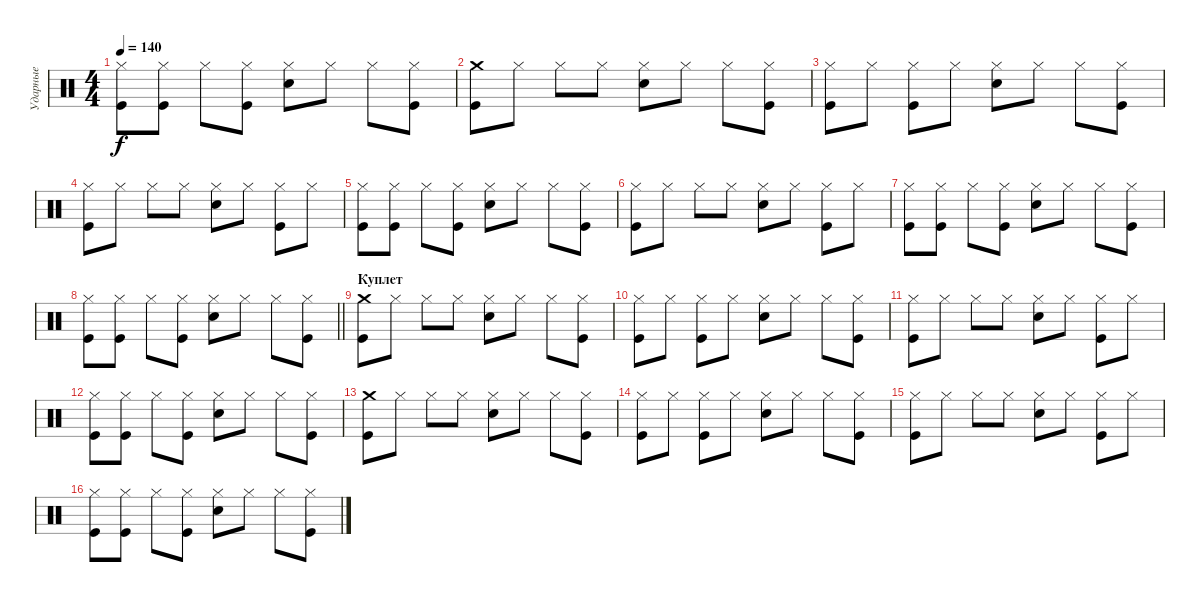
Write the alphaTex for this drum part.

\track ("Ударные" "Ударные") {instrument percussion}
\staff {score}
\articulation defaults
\ts (4 4)
\tempo 140
\clef neutral
\ks c
("Hi-Hat (closed)" "Kick (hit)").8{dy f} ("Hi-Hat (closed)" "Kick (hit)").8 "Hi-Hat (closed)".8 ("Hi-Hat (closed)" "Kick (hit)").8 ("Hi-Hat (closed)" "Snare (hit) 2").8 "Hi-Hat (closed)".8 "Hi-Hat (closed)".8 ("Hi-Hat (closed)" "Kick (hit)").8 |
("Crash medium (hit)" "Kick (hit)").8 "Hi-Hat (closed)".8 "Hi-Hat (closed)".8 "Hi-Hat (closed)".8 ("Hi-Hat (closed)" "Snare (hit) 2").8 "Hi-Hat (closed)".8 "Hi-Hat (closed)".8 ("Hi-Hat (closed)" "Kick (hit)").8 |
("Hi-Hat (closed)" "Kick (hit)").8 "Hi-Hat (closed)".8 ("Hi-Hat (closed)" "Kick (hit)").8 "Hi-Hat (closed)".8 ("Hi-Hat (closed)" "Snare (hit) 2").8 "Hi-Hat (closed)".8 "Hi-Hat (closed)".8 ("Hi-Hat (closed)" "Kick (hit)").8 |
("Hi-Hat (closed)" "Kick (hit)").8 "Hi-Hat (closed)".8 "Hi-Hat (closed)".8 "Hi-Hat (closed)".8 ("Hi-Hat (closed)" "Snare (hit) 2").8 "Hi-Hat (closed)".8 ("Hi-Hat (closed)" "Kick (hit)").8 "Hi-Hat (closed)".8 |
("Hi-Hat (closed)" "Kick (hit)").8 ("Hi-Hat (closed)" "Kick (hit)").8 "Hi-Hat (closed)".8 ("Hi-Hat (closed)" "Kick (hit)").8 ("Hi-Hat (closed)" "Snare (hit) 2").8 "Hi-Hat (closed)".8 "Hi-Hat (closed)".8 ("Hi-Hat (closed)" "Kick (hit)").8 |
("Hi-Hat (closed)" "Kick (hit)").8 "Hi-Hat (closed)".8 "Hi-Hat (closed)".8 "Hi-Hat (closed)".8 ("Hi-Hat (closed)" "Snare (hit) 2").8 "Hi-Hat (closed)".8 ("Hi-Hat (closed)" "Kick (hit)").8 "Hi-Hat (closed)".8 |
("Hi-Hat (closed)" "Kick (hit)").8 ("Hi-Hat (closed)" "Kick (hit)").8 "Hi-Hat (closed)".8 ("Hi-Hat (closed)" "Kick (hit)").8 ("Hi-Hat (closed)" "Snare (hit) 2").8 "Hi-Hat (closed)".8 "Hi-Hat (closed)".8 ("Hi-Hat (closed)" "Kick (hit)").8 |
\barLineRight lightlight
("Hi-Hat (closed)" "Kick (hit)").8 ("Hi-Hat (closed)" "Kick (hit)").8 "Hi-Hat (closed)".8 ("Hi-Hat (closed)" "Kick (hit)").8 ("Hi-Hat (closed)" "Snare (hit) 2").8 "Hi-Hat (closed)".8 "Hi-Hat (closed)".8 ("Hi-Hat (closed)" "Kick (hit)").8 |
\section ("" "Куплет")
("Crash medium (hit)" "Kick (hit)").8 "Hi-Hat (closed)".8 "Hi-Hat (closed)".8 "Hi-Hat (closed)".8 ("Hi-Hat (closed)" "Snare (hit) 2").8 "Hi-Hat (closed)".8 "Hi-Hat (closed)".8 ("Hi-Hat (closed)" "Kick (hit)").8 |
("Hi-Hat (closed)" "Kick (hit)").8 "Hi-Hat (closed)".8 ("Hi-Hat (closed)" "Kick (hit)").8 "Hi-Hat (closed)".8 ("Hi-Hat (closed)" "Snare (hit) 2").8 "Hi-Hat (closed)".8 "Hi-Hat (closed)".8 ("Hi-Hat (closed)" "Kick (hit)").8 |
("Hi-Hat (closed)" "Kick (hit)").8 "Hi-Hat (closed)".8 "Hi-Hat (closed)".8 "Hi-Hat (closed)".8 ("Hi-Hat (closed)" "Snare (hit) 2").8 "Hi-Hat (closed)".8 ("Hi-Hat (closed)" "Kick (hit)").8 "Hi-Hat (closed)".8 |
("Hi-Hat (closed)" "Kick (hit)").8 ("Hi-Hat (closed)" "Kick (hit)").8 "Hi-Hat (closed)".8 ("Hi-Hat (closed)" "Kick (hit)").8 ("Hi-Hat (closed)" "Snare (hit) 2").8 "Hi-Hat (closed)".8 "Hi-Hat (closed)".8 ("Hi-Hat (closed)" "Kick (hit)").8 |
("Crash medium (hit)" "Kick (hit)").8 "Hi-Hat (closed)".8 "Hi-Hat (closed)".8 "Hi-Hat (closed)".8 ("Hi-Hat (closed)" "Snare (hit) 2").8 "Hi-Hat (closed)".8 "Hi-Hat (closed)".8 ("Hi-Hat (closed)" "Kick (hit)").8 |
("Hi-Hat (closed)" "Kick (hit)").8 "Hi-Hat (closed)".8 ("Hi-Hat (closed)" "Kick (hit)").8 "Hi-Hat (closed)".8 ("Hi-Hat (closed)" "Snare (hit) 2").8 "Hi-Hat (closed)".8 "Hi-Hat (closed)".8 ("Hi-Hat (closed)" "Kick (hit)").8 |
("Hi-Hat (closed)" "Kick (hit)").8 "Hi-Hat (closed)".8 "Hi-Hat (closed)".8 "Hi-Hat (closed)".8 ("Hi-Hat (closed)" "Snare (hit) 2").8 "Hi-Hat (closed)".8 ("Hi-Hat (closed)" "Kick (hit)").8 "Hi-Hat (closed)".8 |
("Hi-Hat (closed)" "Kick (hit)").8 ("Hi-Hat (closed)" "Kick (hit)").8 "Hi-Hat (closed)".8 ("Hi-Hat (closed)" "Kick (hit)").8 ("Hi-Hat (closed)" "Snare (hit) 2").8 "Hi-Hat (closed)".8 "Hi-Hat (closed)".8 ("Hi-Hat (closed)" "Kick (hit)").8
